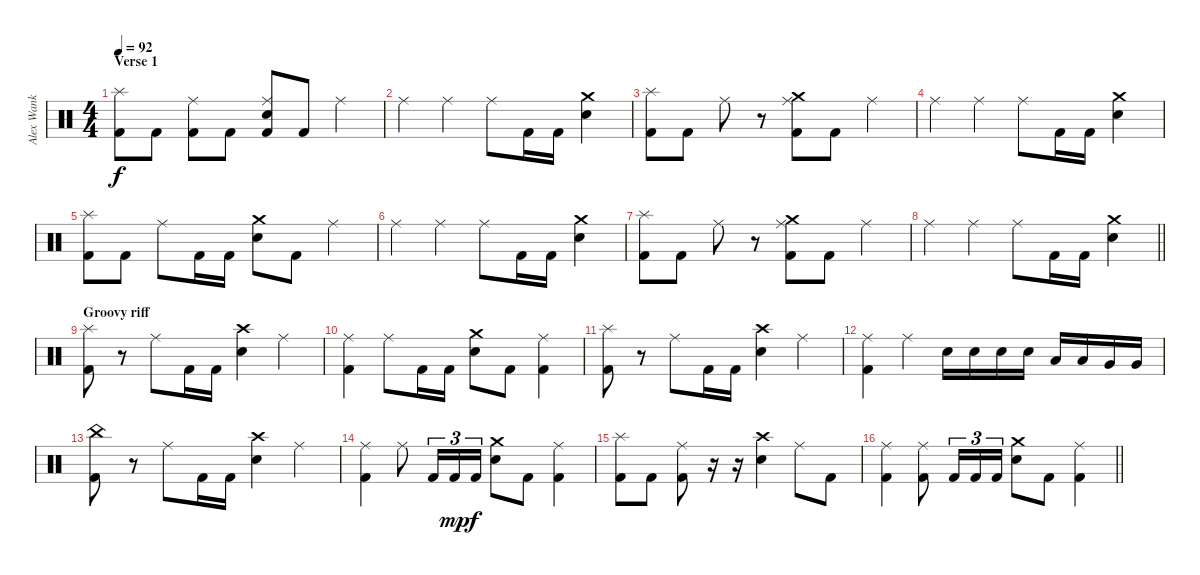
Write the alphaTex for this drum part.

\track ("Alex Wank" "Alex Wank") {instrument percussion}
\staff {score}
\articulation defaults
\ts (4 4)
\section ("" "Verse 1")
\tempo 92
\clef neutral
\ks c
("Kick (hit) 2" "Splash (hit)").8{dy f} "Kick (hit) 2".8 ("Kick (hit) 2" "Ride (middle)").8 "Kick (hit) 2".8 ("Kick (hit) 2" "Ride (middle)" "Snare (hit) 2").8 "Kick (hit) 2".8 "Ride (middle)".4 |
"Ride (middle)".4 "Ride (middle)".4 "Ride (middle)".8 "Kick (hit) 2".16 "Kick (hit) 2".16 ("Crash medium (hit)" "Snare (hit) 2").4 |
("Kick (hit) 2" "Splash (hit)").8 "Kick (hit) 2".8 "Ride (middle)".8 r.8 ("Kick (hit) 2" "Crash medium (hit)" "Ride (middle)").8 "Kick (hit) 2".8 "Ride (middle)".4 |
"Ride (middle)".4 "Ride (middle)".4 "Ride (middle)".8 "Kick (hit) 2".16 "Kick (hit) 2".16 ("Crash medium (hit)" "Snare (hit) 2").4 |
("Kick (hit) 2" "Splash (hit)").8 "Kick (hit) 2".8 "Ride (middle)".8 "Kick (hit) 2".16 "Kick (hit) 2".16 ("Crash medium (hit)" "Snare (hit) 2").8 "Kick (hit) 2".8 "Ride (middle)".4 |
"Ride (middle)".4 "Ride (middle)".4 "Ride (middle)".8 "Kick (hit) 2".16 "Kick (hit) 2".16 ("Crash medium (hit)" "Snare (hit) 2").4 |
("Kick (hit) 2" "Splash (hit)").8 "Kick (hit) 2".8 "Ride (middle)".8 r.8 ("Kick (hit) 2" "Crash medium (hit)" "Ride (middle)").8 "Kick (hit) 2".8 "Ride (middle)".4 |
\barLineRight lightlight "Ride (middle)".4 "Ride (middle)".4 "Ride (middle)".8 "Kick (hit) 2".16 "Kick (hit) 2".16
("Crash medium (hit)" "Snare (hit) 2").4 |
\section ("" "Groovy riff")
("Kick (hit) 2" "Splash (hit)").8 r.8 "Ride (middle)".8 "Kick (hit) 2".16 "Kick (hit) 2".16 ("Crash high (hit)" "Snare (hit) 2").4 "Ride (middle)".4 |
("Kick (hit) 2" "Ride (middle)").4 "Ride (middle)".8 "Kick (hit) 2".16 "Kick (hit) 2".16 ("Crash medium (hit)" "Snare (hit) 2").8 "Kick (hit) 2".8 ("Kick (hit) 2" "Ride (middle)").4 |
("Kick (hit) 2" "Splash (hit)").8 r.8 "Ride (middle)".8 "Kick (hit) 2".16 "Kick (hit) 2".16 ("Crash high (hit)" "Snare (hit) 2").4 "Ride (middle)".4 |
("Kick (hit) 2" "Ride (middle)").4 "Ride (middle)".4 "Snare (hit) 2".16 "Snare (hit) 2".16 "Snare (hit) 2".16 "Snare (hit) 2".16 "Low Tom (hit)".16 "Low Tom (hit)".16 "Very Low Tom (hit)".16 "Very Low Tom (hit)".16 |
("Kick (hit) 2" "China (hit)").8 r.8 "Ride (middle)".8 "Kick (hit) 2".16 "Kick (hit) 2".16 ("Crash high (hit)" "Snare (hit) 2").4 "Ride (middle)".4 |
("Kick (hit) 2" "Ride (middle)").4 "Ride (middle)".8 "Kick (hit) 2".16{tu (3 2)} "Kick (hit) 2".16{tu (3 2) dy mp} "Kick (hit) 2".16{tu (3 2) dy f} ("Crash medium (hit)" "Snare (hit) 2").8 "Kick (hit) 2".8 ("Kick (hit) 2" "Ride (middle)").4 |
("Kick (hit) 2" "Splash (hit)").8 "Kick (hit) 2".8 ("Kick (hit) 2" "Ride (middle)").8 r.16 r.16 ("Crash high (hit)" "Snare (hit) 2").4 "Ride (middle)".8 "Kick (hit) 2".8 |
\barLineRight lightlight
("Kick (hit) 2" "Ride (middle)").4 ("Kick (hit) 2" "Ride (middle)").8 "Kick (hit) 2".16{tu (3 2)} "Kick (hit) 2".16{tu (3 2)} "Kick (hit) 2".16{tu (3 2)} ("Crash medium (hit)" "Snare (hit) 2").8 "Kick (hit) 2".8 ("Kick (hit) 2" "Ride (middle)").4
